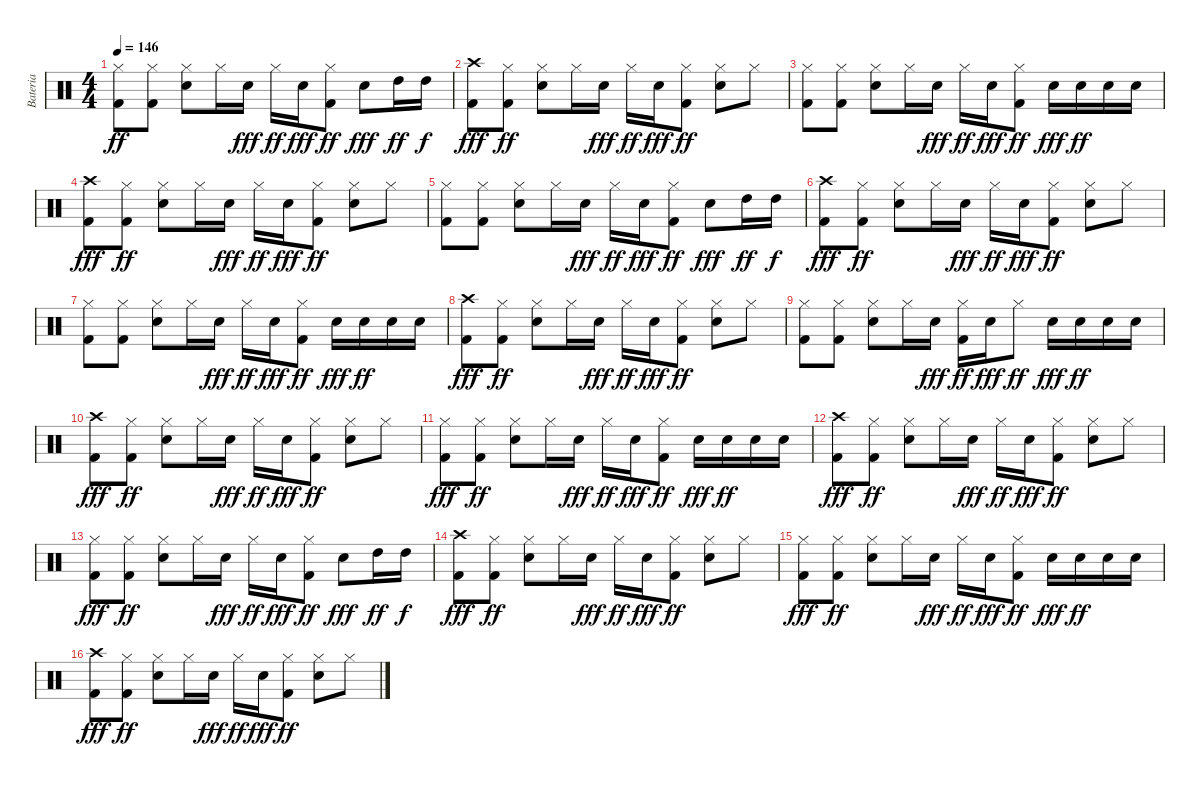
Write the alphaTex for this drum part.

\track ("Bateria" "Bateria") {instrument percussion}
\staff {score}
\articulation defaults
\ts (4 4)
\tempo 146
\clef neutral
\ks c
("Kick (hit) 2" "Hi-Hat (closed)").8{dy ff} ("Kick (hit) 2" "Hi-Hat (closed)").8 ("Electric Snare (hit)" "Hi-Hat (closed)").8 "Hi-Hat (closed)".16 "Electric Snare (hit)".16{dy fff} "Hi-Hat (closed)".16{dy ff} "Electric Snare (hit)".16{dy fff} ("Kick (hit) 2" "Hi-Hat (closed)").8{dy ff} "Electric Snare (hit)".8{dy fff} "High Tom (hit)".16{dy ff} "High Tom (hit)".16{dy f} |
("Crash high (hit)" "Kick (hit) 2").8{dy fff} ("Kick (hit) 2" "Hi-Hat (closed)").8{dy ff} ("Electric Snare (hit)" "Hi-Hat (closed)").8 "Hi-Hat (closed)".16 "Electric Snare (hit)".16{dy fff} "Hi-Hat (closed)".16{dy ff} "Electric Snare (hit)".16{dy fff} ("Kick (hit) 2" "Hi-Hat (closed)").8{dy ff} ("Electric Snare (hit)" "Hi-Hat (closed)").8 "Hi-Hat (closed)".8 |
("Kick (hit) 2" "Hi-Hat (closed)").8 ("Kick (hit) 2" "Hi-Hat (closed)").8 ("Electric Snare (hit)" "Hi-Hat (closed)").8 "Hi-Hat (closed)".16 "Electric Snare (hit)".16{dy fff} "Hi-Hat (closed)".16{dy ff} "Electric Snare (hit)".16{dy fff} ("Kick (hit) 2" "Hi-Hat (closed)").8{dy ff} "Electric Snare (hit)".16{dy fff} "Electric Snare (hit)".16{dy ff} "Electric Snare (hit)".16 "Electric Snare (hit)".16 |
("Crash high (hit)" "Kick (hit) 2").8{dy fff} ("Kick (hit) 2" "Hi-Hat (closed)").8{dy ff} ("Electric Snare (hit)" "Hi-Hat (closed)").8 "Hi-Hat (closed)".16 "Electric Snare (hit)".16{dy fff} "Hi-Hat (closed)".16{dy ff} "Electric Snare (hit)".16{dy fff} ("Kick (hit) 2" "Hi-Hat (closed)").8{dy ff} ("Electric Snare (hit)" "Hi-Hat (closed)").8 "Hi-Hat (closed)".8 |
("Kick (hit) 2" "Hi-Hat (closed)").8 ("Kick (hit) 2" "Hi-Hat (closed)").8 ("Electric Snare (hit)" "Hi-Hat (closed)").8 "Hi-Hat (closed)".16 "Electric Snare (hit)".16{dy fff} "Hi-Hat (closed)".16{dy ff} "Electric Snare (hit)".16{dy fff} ("Kick (hit) 2" "Hi-Hat (closed)").8{dy ff} "Electric Snare (hit)".8{dy fff} "High Tom (hit)".16{dy ff} "High Tom (hit)".16{dy f} |
("Crash high (hit)" "Kick (hit) 2").8{dy fff} ("Kick (hit) 2" "Hi-Hat (closed)").8{dy ff} ("Electric Snare (hit)" "Hi-Hat (closed)").8 "Hi-Hat (closed)".16 "Electric Snare (hit)".16{dy fff} "Hi-Hat (closed)".16{dy ff} "Electric Snare (hit)".16{dy fff} ("Kick (hit) 2" "Hi-Hat (closed)").8{dy ff} ("Electric Snare (hit)" "Hi-Hat (closed)").8 "Hi-Hat (closed)".8 |
("Kick (hit) 2" "Hi-Hat (closed)").8 ("Kick (hit) 2" "Hi-Hat (closed)").8 ("Electric Snare (hit)" "Hi-Hat (closed)").8 "Hi-Hat (closed)".16 "Electric Snare (hit)".16{dy fff} "Hi-Hat (closed)".16{dy ff} "Electric Snare (hit)".16{dy fff} ("Kick (hit) 2" "Hi-Hat (closed)").8{dy ff} "Electric Snare (hit)".16{dy fff} "Electric Snare (hit)".16{dy ff} "Electric Snare (hit)".16 "Electric Snare (hit)".16 |
("Crash high (hit)" "Kick (hit) 2").8{dy fff} ("Kick (hit) 2" "Hi-Hat (closed)").8{dy ff} ("Electric Snare (hit)" "Hi-Hat (closed)").8 "Hi-Hat (closed)".16 "Electric Snare (hit)".16{dy fff} "Hi-Hat (closed)".16{dy ff} "Electric Snare (hit)".16{dy fff} ("Kick (hit) 2" "Hi-Hat (closed)").8{dy ff} ("Electric Snare (hit)" "Hi-Hat (closed)").8 "Hi-Hat (closed)".8 |
("Kick (hit) 2" "Hi-Hat (closed)").8 ("Kick (hit) 2" "Hi-Hat (closed)").8 ("Electric Snare (hit)" "Hi-Hat (closed)").8 "Hi-Hat (closed)".16 "Electric Snare (hit)".16{dy fff} ("Kick (hit) 2" "Hi-Hat (closed)").16{dy ff} "Electric Snare (hit)".16{dy fff} "Hi-Hat (closed)".8{dy ff} "Electric Snare (hit)".16{dy fff} "Electric Snare (hit)".16{dy ff} "Electric Snare (hit)".16 "Electric Snare (hit)".16 |
("Crash high (hit)" "Kick (hit) 2").8{dy fff} ("Kick (hit) 2" "Hi-Hat (closed)").8{dy ff} ("Electric Snare (hit)" "Hi-Hat (closed)").8 "Hi-Hat (closed)".16 "Electric Snare (hit)".16{dy fff} "Hi-Hat (closed)".16{dy ff} "Electric Snare (hit)".16{dy fff} ("Kick (hit) 2" "Hi-Hat (closed)").8{dy ff} ("Electric Snare (hit)" "Hi-Hat (closed)").8 "Hi-Hat (closed)".8 |
("Hi-Hat (closed)" "Kick (hit) 2").8{dy fff} ("Kick (hit) 2" "Hi-Hat (closed)").8{dy ff} ("Electric Snare (hit)" "Hi-Hat (closed)").8 "Hi-Hat (closed)".16 "Electric Snare (hit)".16{dy fff} "Hi-Hat (closed)".16{dy ff} "Electric Snare (hit)".16{dy fff} ("Kick (hit) 2" "Hi-Hat (closed)").8{dy ff} "Electric Snare (hit)".16{dy fff} "Electric Snare (hit)".16{dy ff} "Electric Snare (hit)".16 "Electric Snare (hit)".16 |
("Crash high (hit)" "Kick (hit) 2").8{dy fff} ("Kick (hit) 2" "Hi-Hat (closed)").8{dy ff} ("Electric Snare (hit)" "Hi-Hat (closed)").8 "Hi-Hat (closed)".16 "Electric Snare (hit)".16{dy fff} "Hi-Hat (closed)".16{dy ff} "Electric Snare (hit)".16{dy fff} ("Kick (hit) 2" "Hi-Hat (closed)").8{dy ff} ("Electric Snare (hit)" "Hi-Hat (closed)").8 "Hi-Hat (closed)".8 |
("Hi-Hat (closed)" "Kick (hit) 2").8{dy fff} ("Kick (hit) 2" "Hi-Hat (closed)").8{dy ff} ("Electric Snare (hit)" "Hi-Hat (closed)").8 "Hi-Hat (closed)".16 "Electric Snare (hit)".16{dy fff} "Hi-Hat (closed)".16{dy ff} "Electric Snare (hit)".16{dy fff} ("Kick (hit) 2" "Hi-Hat (closed)").8{dy ff} "Electric Snare (hit)".8{dy fff} "High Tom (hit)".16{dy ff} "High Tom (hit)".16{dy f} |
("Crash high (hit)" "Kick (hit) 2").8{dy fff} ("Kick (hit) 2" "Hi-Hat (closed)").8{dy ff} ("Electric Snare (hit)" "Hi-Hat (closed)").8 "Hi-Hat (closed)".16 "Electric Snare (hit)".16{dy fff} "Hi-Hat (closed)".16{dy ff} "Electric Snare (hit)".16{dy fff} ("Kick (hit) 2" "Hi-Hat (closed)").8{dy ff} ("Electric Snare (hit)" "Hi-Hat (closed)").8 "Hi-Hat (closed)".8 |
("Hi-Hat (closed)" "Kick (hit) 2").8{dy fff} ("Kick (hit) 2" "Hi-Hat (closed)").8{dy ff} ("Electric Snare (hit)" "Hi-Hat (closed)").8 "Hi-Hat (closed)".16 "Electric Snare (hit)".16{dy fff} "Hi-Hat (closed)".16{dy ff} "Electric Snare (hit)".16{dy fff} ("Kick (hit) 2" "Hi-Hat (closed)").8{dy ff} "Electric Snare (hit)".16{dy fff} "Electric Snare (hit)".16{dy ff} "Electric Snare (hit)".16 "Electric Snare (hit)".16 |
("Crash high (hit)" "Kick (hit) 2").8{dy fff} ("Kick (hit) 2" "Hi-Hat (closed)").8{dy ff} ("Electric Snare (hit)" "Hi-Hat (closed)").8 "Hi-Hat (closed)".16 "Electric Snare (hit)".16{dy fff} "Hi-Hat (closed)".16{dy ff} "Electric Snare (hit)".16{dy fff} ("Kick (hit) 2" "Hi-Hat (closed)").8{dy ff} ("Electric Snare (hit)" "Hi-Hat (closed)").8 "Hi-Hat (closed)".8
